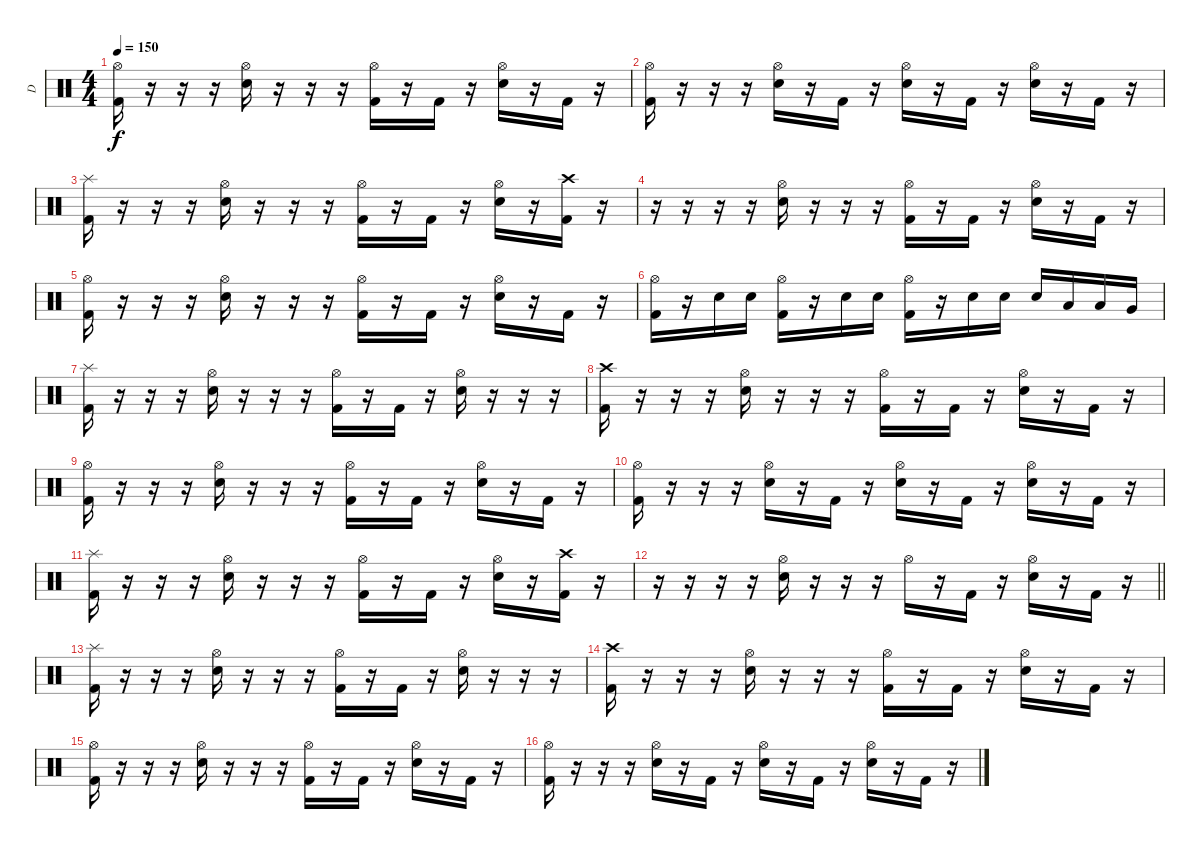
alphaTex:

\track ("D" "D") {instrument percussion}
\staff {score}
\articulation defaults
\ts (4 4)
\tempo 150
\clef neutral
\ks c
("Hi-Hat (open)" "Kick (hit) 2").16{dy f} r.16 r.16 r.16 ("Hi-Hat (open)" "Electric Snare (hit)").16 r.16 r.16 r.16 ("Hi-Hat (open)" "Kick (hit) 2").16 r.16 "Kick (hit) 2".16 r.16 ("Hi-Hat (open)" "Electric Snare (hit)").16 r.16 "Kick (hit) 2".16 r.16 |
("Hi-Hat (open)" "Kick (hit) 2").16 r.16 r.16 r.16 ("Hi-Hat (open)" "Electric Snare (hit)").16 r.16 "Kick (hit) 2".16 r.16 ("Hi-Hat (open)" "Electric Snare (hit)").16 r.16 "Kick (hit) 2".16 r.16 ("Hi-Hat (open)" "Electric Snare (hit)").16 r.16 "Kick (hit) 2".16 r.16 |
("Splash (hit)" "Kick (hit) 2").16 r.16 r.16 r.16 ("Hi-Hat (open)" "Electric Snare (hit)").16 r.16 r.16 r.16 ("Hi-Hat (open)" "Kick (hit) 2").16 r.16 "Kick (hit) 2".16 r.16 ("Hi-Hat (open)" "Electric Snare (hit)").16 r.16 ("Crash high (hit)" "Kick (hit) 2").16 r.16 |
r.16 r.16 r.16 r.16 ("Hi-Hat (open)" "Electric Snare (hit)").16 r.16 r.16 r.16 ("Hi-Hat (open)" "Kick (hit) 2").16 r.16 "Kick (hit) 2".16 r.16 ("Hi-Hat (open)" "Electric Snare (hit)").16 r.16 "Kick (hit) 2".16 r.16 |
("Hi-Hat (open)" "Kick (hit) 2").16 r.16 r.16 r.16 ("Hi-Hat (open)" "Electric Snare (hit)").16 r.16 r.16 r.16 ("Hi-Hat (open)" "Kick (hit) 2").16 r.16 "Kick (hit) 2".16 r.16 ("Hi-Hat (open)" "Electric Snare (hit)").16 r.16 "Kick (hit) 2".16 r.16 |
("Hi-Hat (open)" "Kick (hit) 2").16 r.16 "Electric Snare (hit)".16 "Electric Snare (hit)".16 ("Hi-Hat (open)" "Kick (hit) 2").16 r.16 "Electric Snare (hit)".16 "Electric Snare (hit)".16 ("Hi-Hat (open)" "Kick (hit) 2").16 r.16 "Electric Snare (hit)".16 "Electric Snare (hit)".16 "Electric Snare (hit)".16 "Low Tom (hit)".16 "Low Tom (hit)".16 "Very Low Tom (hit)".16 |
("Splash (hit)" "Kick (hit) 2").16 r.16 r.16 r.16 ("Hi-Hat (open)" "Electric Snare (hit)").16 r.16 r.16 r.16 ("Hi-Hat (open)" "Kick (hit) 2").16 r.16 "Kick (hit) 2".16 r.16 ("Hi-Hat (open)" "Electric Snare (hit)").16 r.16 r.16 r.16 |
("Crash high (hit)" "Kick (hit) 2").16 r.16 r.16 r.16 ("Hi-Hat (open)" "Electric Snare (hit)").16 r.16 r.16 r.16 ("Hi-Hat (open)" "Kick (hit) 2").16 r.16 "Kick (hit) 2".16 r.16 ("Hi-Hat (open)" "Electric Snare (hit)").16 r.16 "Kick (hit) 2".16 r.16 |
("Hi-Hat (open)" "Kick (hit) 2").16 r.16 r.16 r.16 ("Hi-Hat (open)" "Electric Snare (hit)").16 r.16 r.16 r.16 ("Hi-Hat (open)" "Kick (hit) 2").16 r.16 "Kick (hit) 2".16 r.16 ("Hi-Hat (open)" "Electric Snare (hit)").16 r.16 "Kick (hit) 2".16 r.16 |
("Hi-Hat (open)" "Kick (hit) 2").16 r.16 r.16 r.16 ("Hi-Hat (open)" "Electric Snare (hit)").16 r.16 "Kick (hit) 2".16 r.16 ("Hi-Hat (open)" "Electric Snare (hit)").16 r.16 "Kick (hit) 2".16 r.16 ("Hi-Hat (open)" "Electric Snare (hit)").16 r.16 "Kick (hit) 2".16 r.16 |
("Splash (hit)" "Kick (hit) 2").16 r.16 r.16 r.16 ("Hi-Hat (open)" "Electric Snare (hit)").16 r.16 r.16 r.16 ("Hi-Hat (open)" "Kick (hit) 2").16 r.16 "Kick (hit) 2".16 r.16 ("Hi-Hat (open)" "Electric Snare (hit)").16 r.16 ("Crash high (hit)" "Kick (hit) 2").16 r.16 |
\barLineRight lightlight
r.16 r.16 r.16 r.16 ("Hi-Hat (open)" "Electric Snare (hit)").16 r.16 r.16 r.16 "Hi-Hat (open)".16 r.16 "Kick (hit) 2".16 r.16 ("Hi-Hat (open)" "Electric Snare (hit)").16 r.16 "Kick (hit) 2".16 r.16 |
("Splash (hit)" "Kick (hit) 2").16 r.16 r.16 r.16 ("Hi-Hat (open)" "Electric Snare (hit)").16 r.16 r.16 r.16 ("Hi-Hat (open)" "Kick (hit) 2").16 r.16 "Kick (hit) 2".16 r.16 ("Hi-Hat (open)" "Electric Snare (hit)").16 r.16 r.16 r.16 |
("Crash high (hit)" "Kick (hit) 2").16 r.16 r.16 r.16 ("Hi-Hat (open)" "Electric Snare (hit)").16 r.16 r.16 r.16 ("Hi-Hat (open)" "Kick (hit) 2").16 r.16 "Kick (hit) 2".16 r.16 ("Hi-Hat (open)" "Electric Snare (hit)").16 r.16 "Kick (hit) 2".16 r.16 |
("Hi-Hat (open)" "Kick (hit) 2").16 r.16 r.16 r.16 ("Hi-Hat (open)" "Electric Snare (hit)").16 r.16 r.16 r.16 ("Hi-Hat (open)" "Kick (hit) 2").16 r.16 "Kick (hit) 2".16 r.16 ("Hi-Hat (open)" "Electric Snare (hit)").16 r.16 "Kick (hit) 2".16 r.16 |
("Hi-Hat (open)" "Kick (hit) 2").16 r.16 r.16 r.16 ("Hi-Hat (open)" "Electric Snare (hit)").16 r.16 "Kick (hit) 2".16 r.16 ("Hi-Hat (open)" "Electric Snare (hit)").16 r.16 "Kick (hit) 2".16 r.16 ("Hi-Hat (open)" "Electric Snare (hit)").16 r.16 "Kick (hit) 2".16 r.16
